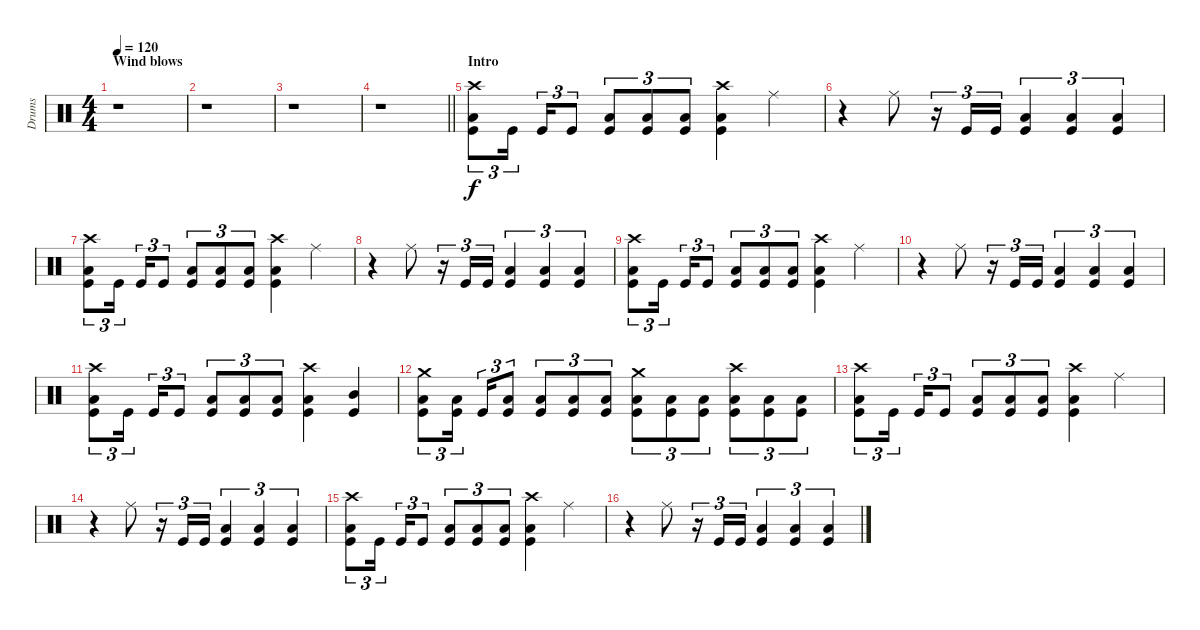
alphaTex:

\track ("Drums" "Drums") {instrument percussion}
\staff {score}
\articulation defaults
\ts (4 4)
\section ("" "Wind blows")
\tempo 120
\clef neutral
\ks c
r.1{dy f} |
r.1 |
r.1 |
\barLineRight lightlight
r.1 |
\section ("" "Intro")
("Crash high (hit)" "Low Floor Tom (hit)" "Kick (hit)").8{tu (3 2)} "Kick (hit)".16{tu (3 2)} "Kick (hit)".16{tu (3 2)} "Kick (hit)".8{tu (3 2)} ("Low Floor Tom (hit)" "Kick (hit)").8{tu (3 2)} ("Low Floor Tom (hit)" "Kick (hit)").8{tu (3 2)} ("Low Floor Tom (hit)" "Kick (hit)").8{tu (3 2)} ("Crash high (hit)" "Low Floor Tom (hit)" "Kick (hit)").4 "Ride (middle)".4 |
r.4 "Ride (middle)".8 r.16{tu (3 2)} "Kick (hit)".16{tu (3 2)} "Kick (hit)".16{tu (3 2)} ("Low Floor Tom (hit)" "Kick (hit)").4{tu (3 2)} ("Low Floor Tom (hit)" "Kick (hit)").4{tu (3 2)} ("Low Floor Tom (hit)" "Kick (hit)").4{tu (3 2)} |
("Crash high (hit)" "Low Floor Tom (hit)" "Kick (hit)").8{tu (3 2)} "Kick (hit)".16{tu (3 2)} "Kick (hit)".16{tu (3 2)} "Kick (hit)".8{tu (3 2)} ("Low Floor Tom (hit)" "Kick (hit)").8{tu (3 2)} ("Low Floor Tom (hit)" "Kick (hit)").8{tu (3 2)} ("Low Floor Tom (hit)" "Kick (hit)").8{tu (3 2)} ("Crash high (hit)" "Low Floor Tom (hit)" "Kick (hit)").4 "Ride (middle)".4 |
r.4 "Ride (middle)".8 r.16{tu (3 2)} "Kick (hit)".16{tu (3 2)} "Kick (hit)".16{tu (3 2)} ("Low Floor Tom (hit)" "Kick (hit)").4{tu (3 2)} ("Low Floor Tom (hit)" "Kick (hit)").4{tu (3 2)} ("Low Floor Tom (hit)" "Kick (hit)").4{tu (3 2)} |
("Crash high (hit)" "Low Floor Tom (hit)" "Kick (hit)").8{tu (3 2)} "Kick (hit)".16{tu (3 2)} "Kick (hit)".16{tu (3 2)} "Kick (hit)".8{tu (3 2)} ("Low Floor Tom (hit)" "Kick (hit)").8{tu (3 2)} ("Low Floor Tom (hit)" "Kick (hit)").8{tu (3 2)} ("Low Floor Tom (hit)" "Kick (hit)").8{tu (3 2)} ("Crash high (hit)" "Low Floor Tom (hit)" "Kick (hit)").4 "Ride (middle)".4 |
r.4 "Ride (middle)".8 r.16{tu (3 2)} "Kick (hit)".16{tu (3 2)} "Kick (hit)".16{tu (3 2)} ("Low Floor Tom (hit)" "Kick (hit)").4{tu (3 2)} ("Low Floor Tom (hit)" "Kick (hit)").4{tu (3 2)} ("Low Floor Tom (hit)" "Kick (hit)").4{tu (3 2)} |
("Crash high (hit)" "Low Floor Tom (hit)" "Kick (hit)").8{tu (3 2)} "Kick (hit)".16{tu (3 2)} "Kick (hit)".16{tu (3 2)} "Kick (hit)".8{tu (3 2)} ("Low Floor Tom (hit)" "Kick (hit)").8{tu (3 2)} ("Low Floor Tom (hit)" "Kick (hit)").8{tu (3 2)} ("Low Floor Tom (hit)" "Kick (hit)").8{tu (3 2)} ("Crash high (hit)" "Low Floor Tom (hit)" "Kick (hit)").4 ("Mid Tom (hit)" "Kick (hit)").4 |
("Crash medium (hit)" "Low Floor Tom (hit)" "Kick (hit)").8{tu (3 2)} ("Low Floor Tom (hit)" "Kick (hit)").16{tu (3 2)} "Kick (hit)".16{tu (3 2)} ("Low Floor Tom (hit)" "Kick (hit)").8{tu (3 2)} ("Low Floor Tom (hit)" "Kick (hit)").8{tu (3 2)} ("Low Floor Tom (hit)" "Kick (hit)").8{tu (3 2)} ("Low Floor Tom (hit)" "Kick (hit)").8{tu (3 2)} ("Crash medium (hit)" "Low Floor Tom (hit)" "Kick (hit)").8{tu (3 2)} ("Low Floor Tom (hit)" "Kick (hit)").8{tu (3 2)} ("Low Floor Tom (hit)" "Kick (hit)").8{tu (3 2)} ("Crash high (hit)" "Low Floor Tom (hit)" "Kick (hit)").8{tu (3 2)} ("Low Floor Tom (hit)" "Kick (hit)").8{tu (3 2)} ("Low Floor Tom (hit)" "Kick (hit)").8{tu (3 2)} |
("Crash high (hit)" "Low Floor Tom (hit)" "Kick (hit)").8{tu (3 2)} "Kick (hit)".16{tu (3 2)} "Kick (hit)".16{tu (3 2)} "Kick (hit)".8{tu (3 2)} ("Low Floor Tom (hit)" "Kick (hit)").8{tu (3 2)} ("Low Floor Tom (hit)" "Kick (hit)").8{tu (3 2)} ("Low Floor Tom (hit)" "Kick (hit)").8{tu (3 2)} ("Crash high (hit)" "Low Floor Tom (hit)" "Kick (hit)").4 "Ride (middle)".4 |
r.4 "Ride (middle)".8 r.16{tu (3 2)} "Kick (hit)".16{tu (3 2)} "Kick (hit)".16{tu (3 2)} ("Low Floor Tom (hit)" "Kick (hit)").4{tu (3 2)} ("Low Floor Tom (hit)" "Kick (hit)").4{tu (3 2)} ("Low Floor Tom (hit)" "Kick (hit)").4{tu (3 2)} |
("Crash high (hit)" "Low Floor Tom (hit)" "Kick (hit)").8{tu (3 2)} "Kick (hit)".16{tu (3 2)} "Kick (hit)".16{tu (3 2)} "Kick (hit)".8{tu (3 2)} ("Low Floor Tom (hit)" "Kick (hit)").8{tu (3 2)} ("Low Floor Tom (hit)" "Kick (hit)").8{tu (3 2)} ("Low Floor Tom (hit)" "Kick (hit)").8{tu (3 2)} ("Crash high (hit)" "Low Floor Tom (hit)" "Kick (hit)").4 "Ride (middle)".4 |
r.4 "Ride (middle)".8 r.16{tu (3 2)} "Kick (hit)".16{tu (3 2)} "Kick (hit)".16{tu (3 2)} ("Low Floor Tom (hit)" "Kick (hit)").4{tu (3 2)} ("Low Floor Tom (hit)" "Kick (hit)").4{tu (3 2)} ("Low Floor Tom (hit)" "Kick (hit)").4{tu (3 2)}
